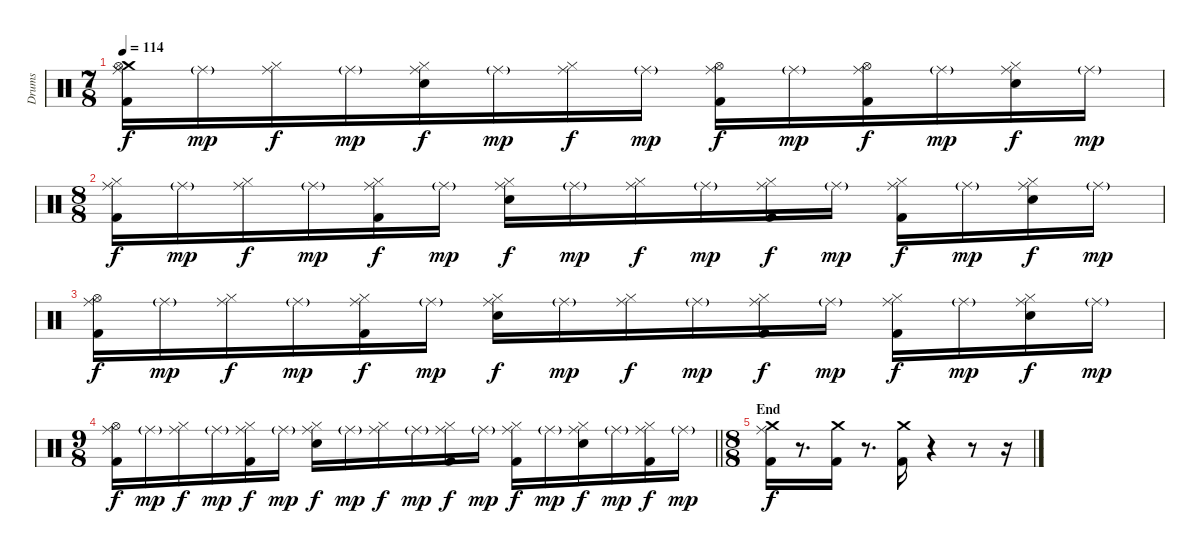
\track ("Drums" "Drums") {instrument percussion}
\staff {score}
\articulation defaults
\ts (7 8)
\tempo 114
\clef neutral
\ks c
("Crash medium (hit)" "Ride (middle)" "Hi-Hat (open)" "Kick (hit) 2").16{dy f} "Ride (middle)"{g}.16{dy mp} ("Ride (middle)" "Hi-Hat (closed)").16{dy f} "Ride (middle)"{g}.16{dy mp} ("Ride (middle)" "Hi-Hat (closed)" "Snare (hit) 2").16{dy f} "Ride (middle)"{g}.16{dy mp} ("Ride (middle)" "Hi-Hat (closed)").16{dy f} "Ride (middle)"{g}.16{dy mp} ("Ride (middle)" "Hi-Hat (open)" "Kick (hit) 2").16{dy f} "Ride (middle)"{g}.16{dy mp} ("Ride (middle)" "Hi-Hat (open)" "Kick (hit) 2").16{dy f} "Ride (middle)"{g}.16{dy mp} ("Ride (middle)" "Hi-Hat (closed)" "Snare (hit) 2").16{dy f} "Ride (middle)"{g}.16{dy mp} |
\ts (8 8)
("Ride (middle)" "Hi-Hat (closed)" "Kick (hit) 2").16{dy f} "Ride (middle)"{g}.16{dy mp} ("Ride (middle)" "Hi-Hat (closed)").16{dy f} "Ride (middle)"{g}.16{dy mp} ("Ride (middle)" "Hi-Hat (closed)" "Kick (hit) 2").16{dy f} "Ride (middle)"{g}.16{dy mp} ("Ride (middle)" "Hi-Hat (closed)" "Snare (hit) 2").16{dy f} "Ride (middle)"{g}.16{dy mp} ("Ride (middle)" "Hi-Hat (closed)").16{dy f} "Ride (middle)"{g}.16{dy mp} ("Ride (middle)" "Hi-Hat (closed)" "Kick (hit) 2").16{dy f} "Ride (middle)"{g}.16{dy mp} ("Ride (middle)" "Hi-Hat (closed)" "Kick (hit) 2").16{dy f} "Ride (middle)"{g}.16{dy mp} ("Ride (middle)" "Hi-Hat (closed)" "Snare (hit) 2").16{dy f} "Ride (middle)"{g}.16{dy mp} |
("Ride (middle)" "Hi-Hat (open)" "Kick (hit) 2").16{dy f} "Ride (middle)"{g}.16{dy mp} ("Ride (middle)" "Hi-Hat (closed)").16{dy f} "Ride (middle)"{g}.16{dy mp} ("Ride (middle)" "Hi-Hat (closed)" "Kick (hit) 2").16{dy f} "Ride (middle)"{g}.16{dy mp} ("Ride (middle)" "Hi-Hat (closed)" "Snare (hit) 2").16{dy f} "Ride (middle)"{g}.16{dy mp} ("Ride (middle)" "Hi-Hat (closed)").16{dy f} "Ride (middle)"{g}.16{dy mp} ("Ride (middle)" "Hi-Hat (closed)" "Kick (hit) 2").16{dy f} "Ride (middle)"{g}.16{dy mp} ("Ride (middle)" "Hi-Hat (closed)" "Kick (hit) 2").16{dy f} "Ride (middle)"{g}.16{dy mp} ("Ride (middle)" "Hi-Hat (closed)" "Snare (hit) 2").16{dy f} "Ride (middle)"{g}.16{dy mp} |
\ts (9 8)
\barLineRight lightlight
("Ride (middle)" "Hi-Hat (open)" "Kick (hit) 2").16{dy f} "Ride (middle)"{g}.16{dy mp} ("Ride (middle)" "Hi-Hat (closed)").16{dy f} "Ride (middle)"{g}.16{dy mp} ("Ride (middle)" "Hi-Hat (closed)" "Kick (hit) 2").16{dy f} "Ride (middle)"{g}.16{dy mp} ("Ride (middle)" "Hi-Hat (closed)" "Snare (hit) 2").16{dy f} "Ride (middle)"{g}.16{dy mp} ("Ride (middle)" "Hi-Hat (closed)").16{dy f} "Ride (middle)"{g}.16{dy mp} ("Ride (middle)" "Hi-Hat (closed)" "Kick (hit) 2").16{dy f} "Ride (middle)"{g}.16{dy mp} ("Ride (middle)" "Hi-Hat (closed)" "Kick (hit) 2").16{dy f} "Ride (middle)"{g}.16{dy mp} ("Ride (middle)" "Hi-Hat (closed)" "Snare (hit) 2").16{dy f} "Ride (middle)"{g}.16{dy mp} ("Ride (middle)" "Hi-Hat (closed)" "Kick (hit) 2").16{dy f} "Ride (middle)"{g}.16{dy mp} |
\ts (8 8)
\section ("" "End")
("Crash medium (hit)" "Ride (middle)" "Kick (hit) 2").16{dy f} r.8{d} ("Crash medium (hit)" "Kick (hit) 2").16 r.8{d} ("Crash medium (hit)" "Kick (hit) 2").16 r.4 r.8 r.16
